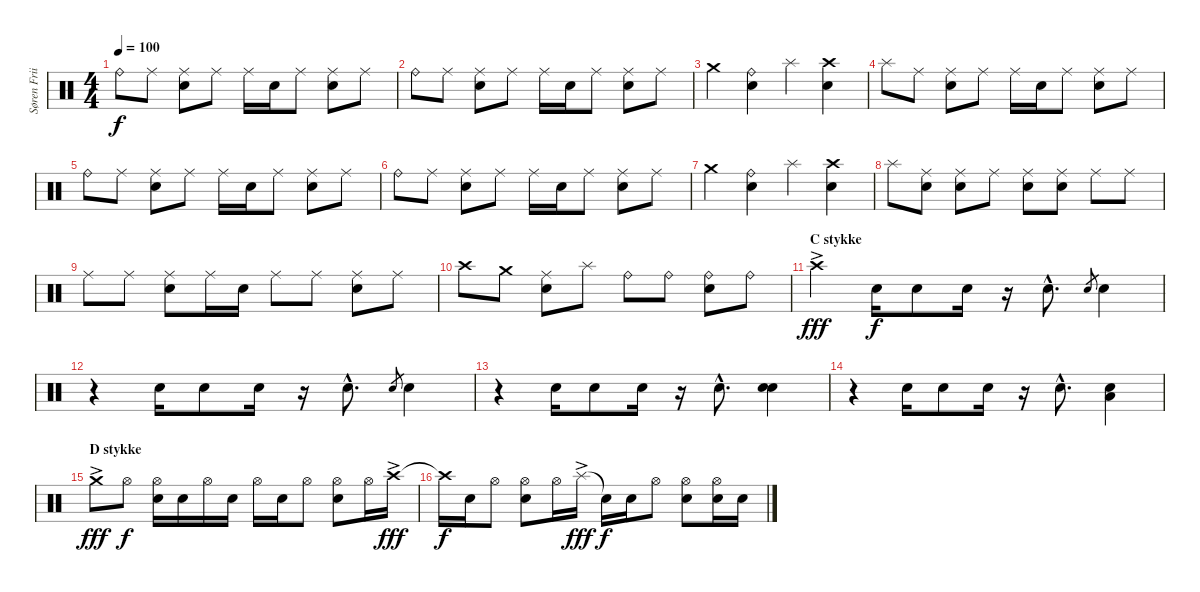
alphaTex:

\track ("Søren Friis (Drums)" "Søren Frii") {instrument percussion}
\staff {score}
\articulation defaults
\ts (4 4)
\tempo 100
\clef neutral
\ks c "Ride (bell)".8{dy f} "Ride (middle)".8
("Ride (middle)" "Snare (hit) 2").8 "Ride (middle)".8 "Ride (middle)".16 "Snare (hit) 2".16 "Ride (middle)".8 ("Ride (middle)" "Snare (hit) 2").8 "Ride (middle)".8 |
"Ride (bell)".8 "Ride (middle)".8 ("Ride (middle)" "Snare (hit) 2").8 "Ride (middle)".8 "Ride (middle)".16 "Snare (hit) 2".16 "Ride (middle)".8 ("Ride (middle)" "Snare (hit) 2").8 "Ride (middle)".8 |
"Crash medium (hit)".4 ("Ride (bell)" "Snare (hit) 2").4 "Splash (hit)".4 ("Crash high (hit)" "Snare (hit) 2").4 |
"Splash (hit)".8 "Ride (middle)".8 ("Ride (middle)" "Snare (hit) 2").8 "Ride (middle)".8 "Ride (middle)".16 "Snare (hit) 2".16 "Ride (middle)".8 ("Ride (middle)" "Snare (hit) 2").8 "Ride (middle)".8 |
"Ride (bell)".8 "Ride (middle)".8 ("Ride (middle)" "Snare (hit) 2").8 "Ride (middle)".8 "Ride (middle)".16 "Snare (hit) 2".16 "Ride (middle)".8 ("Ride (middle)" "Snare (hit) 2").8 "Ride (middle)".8 |
"Ride (bell)".8 "Ride (middle)".8 ("Ride (middle)" "Snare (hit) 2").8 "Ride (middle)".8 "Ride (middle)".16 "Snare (hit) 2".16 "Ride (middle)".8 ("Ride (middle)" "Snare (hit) 2").8 "Ride (middle)".8 |
"Crash medium (hit)".4 ("Ride (bell)" "Snare (hit) 2").4 "Splash (hit)".4 ("Crash high (hit)" "Snare (hit) 2").4 |
"Splash (hit)".8 ("Ride (middle)" "Snare (hit) 2").8 ("Ride (middle)" "Snare (hit) 2").8 "Ride (middle)".8 ("Ride (middle)" "Snare (hit) 2").8 ("Ride (middle)" "Snare (hit) 2").8 "Ride (middle)".8 "Ride (middle)".8 |
"Ride (middle)".8 "Ride (middle)".8 ("Ride (middle)" "Snare (hit) 2").8 "Ride (middle)".16 "Snare (hit) 2".16 "Ride (middle)".8 "Ride (middle)".8 ("Snare (hit) 2" "Ride (middle)").8 "Ride (middle)".8 |
"Crash high (hit)".8 "Crash medium (hit)".8 ("Ride (middle)" "Snare (hit) 2").8 "Splash (hit)".8 "Ride (bell)".8 "Ride (bell)".8 ("Ride (bell)" "Snare (hit) 2").8 "Ride (bell)".8 |
\section ("" "C stykke")
"Crash high (hit)"{ac}.4{dy fff} "Snare (hit) 2".16{dy f} "Snare (hit) 2".8 "Snare (hit) 2".16 r.16 "Snare (hit) 2"{hac}.8{d} "Snare (hit) 2".8{gr} "Snare (hit) 2".4 |
r.4 "Snare (hit) 2".16 "Snare (hit) 2".8 "Snare (hit) 2".16 r.16 "Snare (hit) 2"{hac}.8{d} "Snare (hit) 2".8{gr} "Snare (hit) 2".4 |
r.4 "Snare (hit) 2".16 "Snare (hit) 2".8 "Snare (hit) 2".16 r.16 "Snare (hit) 2"{hac}.8{d} ("Snare (hit) 2" "Snare (hit) 2").4 |
r.4 "Snare (hit) 2".16 "Snare (hit) 2".8 "Snare (hit) 2".16 r.16 "Snare (hit) 2"{hac}.8{d} ("Snare (hit) 2" "Low Tom (hit)").4 |
\section ("" "D stykke")
"Crash medium (hit)"{ac}.8{dy fff} "Hi-Hat (open)".8{dy f} ("Hi-Hat (open)" "Snare (hit) 2").16 "Snare (hit) 2".16 "Hi-Hat (open)".16 "Snare (hit) 2".16 "Hi-Hat (open)".16 "Snare (hit) 2".16 "Hi-Hat (open)".8 ("Hi-Hat (open)" "Snare (hit) 2").8 "Hi-Hat (open)".16 "Crash high (hit)"{ac}.16{dy fff} |
"Crash high (hit)"{t}.16{dy f} "Snare (hit) 2".16 "Hi-Hat (open)".8 ("Hi-Hat (open)" "Snare (hit) 2").8 "Hi-Hat (open)".16 "Splash (hit)"{ac}.16{dy fff} "Snare (hit)"{t}.16{dy f} "Snare (hit) 2".16 "Hi-Hat (open)".8 ("Hi-Hat (open)" "Snare (hit) 2").8 ("Hi-Hat (open)" "Snare (hit) 2").16 "Snare (hit) 2".16
